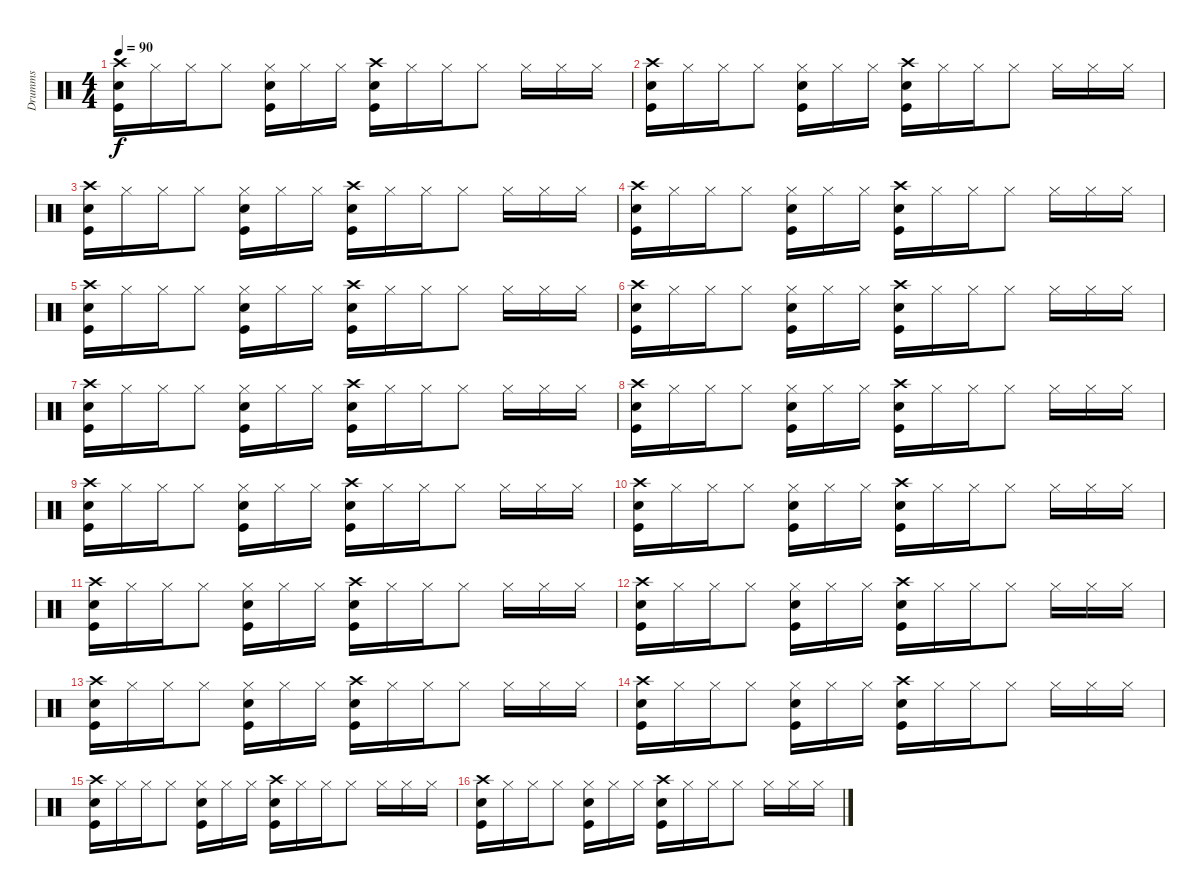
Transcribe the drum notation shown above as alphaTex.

\track ("Drumms" "Drumms") {instrument percussion}
\staff {score}
\articulation defaults
\ts (4 4)
\tempo 90
\clef neutral
\ks c
("Crash high (hit)" "Snare (hit) 2" "Kick (hit)").16{dy f} "Hi-Hat (closed)".16 "Hi-Hat (closed)".16 "Hi-Hat (closed)".8 ("Hi-Hat (closed)" "Snare (hit) 2" "Kick (hit)").16 "Hi-Hat (closed)".16 "Hi-Hat (closed)".16 ("Crash high (hit)" "Snare (hit) 2" "Kick (hit)").16 "Hi-Hat (closed)".16 "Hi-Hat (closed)".16 "Hi-Hat (closed)".8 "Hi-Hat (closed)".16 "Hi-Hat (closed)".16 "Hi-Hat (closed)".16 |
("Crash high (hit)" "Snare (hit) 2" "Kick (hit)").16 "Hi-Hat (closed)".16 "Hi-Hat (closed)".16 "Hi-Hat (closed)".8 ("Hi-Hat (closed)" "Snare (hit) 2" "Kick (hit)").16 "Hi-Hat (closed)".16 "Hi-Hat (closed)".16 ("Crash high (hit)" "Snare (hit) 2" "Kick (hit)").16 "Hi-Hat (closed)".16 "Hi-Hat (closed)".16 "Hi-Hat (closed)".8 "Hi-Hat (closed)".16 "Hi-Hat (closed)".16 "Hi-Hat (closed)".16 |
("Crash high (hit)" "Snare (hit) 2" "Kick (hit)").16 "Hi-Hat (closed)".16 "Hi-Hat (closed)".16 "Hi-Hat (closed)".8 ("Hi-Hat (closed)" "Snare (hit) 2" "Kick (hit)").16 "Hi-Hat (closed)".16 "Hi-Hat (closed)".16 ("Crash high (hit)" "Snare (hit) 2" "Kick (hit)").16 "Hi-Hat (closed)".16 "Hi-Hat (closed)".16 "Hi-Hat (closed)".8 "Hi-Hat (closed)".16 "Hi-Hat (closed)".16 "Hi-Hat (closed)".16 |
("Crash high (hit)" "Snare (hit) 2" "Kick (hit)").16 "Hi-Hat (closed)".16 "Hi-Hat (closed)".16 "Hi-Hat (closed)".8 ("Hi-Hat (closed)" "Snare (hit) 2" "Kick (hit)").16 "Hi-Hat (closed)".16 "Hi-Hat (closed)".16 ("Crash high (hit)" "Snare (hit) 2" "Kick (hit)").16 "Hi-Hat (closed)".16 "Hi-Hat (closed)".16 "Hi-Hat (closed)".8 "Hi-Hat (closed)".16 "Hi-Hat (closed)".16 "Hi-Hat (closed)".16 |
("Crash high (hit)" "Snare (hit) 2" "Kick (hit)").16 "Hi-Hat (closed)".16 "Hi-Hat (closed)".16 "Hi-Hat (closed)".8 ("Hi-Hat (closed)" "Snare (hit) 2" "Kick (hit)").16 "Hi-Hat (closed)".16 "Hi-Hat (closed)".16 ("Crash high (hit)" "Snare (hit) 2" "Kick (hit)").16 "Hi-Hat (closed)".16 "Hi-Hat (closed)".16 "Hi-Hat (closed)".8 "Hi-Hat (closed)".16 "Hi-Hat (closed)".16 "Hi-Hat (closed)".16 |
("Crash high (hit)" "Snare (hit) 2" "Kick (hit)").16 "Hi-Hat (closed)".16 "Hi-Hat (closed)".16 "Hi-Hat (closed)".8 ("Hi-Hat (closed)" "Snare (hit) 2" "Kick (hit)").16 "Hi-Hat (closed)".16 "Hi-Hat (closed)".16 ("Crash high (hit)" "Snare (hit) 2" "Kick (hit)").16 "Hi-Hat (closed)".16 "Hi-Hat (closed)".16 "Hi-Hat (closed)".8 "Hi-Hat (closed)".16 "Hi-Hat (closed)".16 "Hi-Hat (closed)".16 |
("Crash high (hit)" "Snare (hit) 2" "Kick (hit)").16 "Hi-Hat (closed)".16 "Hi-Hat (closed)".16 "Hi-Hat (closed)".8 ("Hi-Hat (closed)" "Snare (hit) 2" "Kick (hit)").16 "Hi-Hat (closed)".16 "Hi-Hat (closed)".16 ("Crash high (hit)" "Snare (hit) 2" "Kick (hit)").16 "Hi-Hat (closed)".16 "Hi-Hat (closed)".16 "Hi-Hat (closed)".8 "Hi-Hat (closed)".16 "Hi-Hat (closed)".16 "Hi-Hat (closed)".16 |
("Crash high (hit)" "Snare (hit) 2" "Kick (hit)").16 "Hi-Hat (closed)".16 "Hi-Hat (closed)".16 "Hi-Hat (closed)".8 ("Hi-Hat (closed)" "Snare (hit) 2" "Kick (hit)").16 "Hi-Hat (closed)".16 "Hi-Hat (closed)".16 ("Crash high (hit)" "Snare (hit) 2" "Kick (hit)").16 "Hi-Hat (closed)".16 "Hi-Hat (closed)".16 "Hi-Hat (closed)".8 "Hi-Hat (closed)".16 "Hi-Hat (closed)".16 "Hi-Hat (closed)".16 |
("Crash high (hit)" "Snare (hit) 2" "Kick (hit)").16 "Hi-Hat (closed)".16 "Hi-Hat (closed)".16 "Hi-Hat (closed)".8 ("Hi-Hat (closed)" "Snare (hit) 2" "Kick (hit)").16 "Hi-Hat (closed)".16 "Hi-Hat (closed)".16 ("Crash high (hit)" "Snare (hit) 2" "Kick (hit)").16 "Hi-Hat (closed)".16 "Hi-Hat (closed)".16 "Hi-Hat (closed)".8 "Hi-Hat (closed)".16 "Hi-Hat (closed)".16 "Hi-Hat (closed)".16 |
("Crash high (hit)" "Snare (hit) 2" "Kick (hit)").16 "Hi-Hat (closed)".16 "Hi-Hat (closed)".16 "Hi-Hat (closed)".8 ("Hi-Hat (closed)" "Snare (hit) 2" "Kick (hit)").16 "Hi-Hat (closed)".16 "Hi-Hat (closed)".16 ("Crash high (hit)" "Snare (hit) 2" "Kick (hit)").16 "Hi-Hat (closed)".16 "Hi-Hat (closed)".16 "Hi-Hat (closed)".8 "Hi-Hat (closed)".16 "Hi-Hat (closed)".16 "Hi-Hat (closed)".16 |
("Crash high (hit)" "Snare (hit) 2" "Kick (hit)").16 "Hi-Hat (closed)".16 "Hi-Hat (closed)".16 "Hi-Hat (closed)".8 ("Hi-Hat (closed)" "Snare (hit) 2" "Kick (hit)").16 "Hi-Hat (closed)".16 "Hi-Hat (closed)".16 ("Crash high (hit)" "Snare (hit) 2" "Kick (hit)").16 "Hi-Hat (closed)".16 "Hi-Hat (closed)".16 "Hi-Hat (closed)".8 "Hi-Hat (closed)".16 "Hi-Hat (closed)".16 "Hi-Hat (closed)".16 |
("Crash high (hit)" "Snare (hit) 2" "Kick (hit)").16 "Hi-Hat (closed)".16 "Hi-Hat (closed)".16 "Hi-Hat (closed)".8 ("Hi-Hat (closed)" "Snare (hit) 2" "Kick (hit)").16 "Hi-Hat (closed)".16 "Hi-Hat (closed)".16 ("Crash high (hit)" "Snare (hit) 2" "Kick (hit)").16 "Hi-Hat (closed)".16 "Hi-Hat (closed)".16 "Hi-Hat (closed)".8 "Hi-Hat (closed)".16 "Hi-Hat (closed)".16 "Hi-Hat (closed)".16 |
("Crash high (hit)" "Snare (hit) 2" "Kick (hit)").16 "Hi-Hat (closed)".16 "Hi-Hat (closed)".16 "Hi-Hat (closed)".8 ("Hi-Hat (closed)" "Snare (hit) 2" "Kick (hit)").16 "Hi-Hat (closed)".16 "Hi-Hat (closed)".16 ("Crash high (hit)" "Snare (hit) 2" "Kick (hit)").16 "Hi-Hat (closed)".16 "Hi-Hat (closed)".16 "Hi-Hat (closed)".8 "Hi-Hat (closed)".16 "Hi-Hat (closed)".16 "Hi-Hat (closed)".16 |
("Crash high (hit)" "Snare (hit) 2" "Kick (hit)").16 "Hi-Hat (closed)".16 "Hi-Hat (closed)".16 "Hi-Hat (closed)".8 ("Hi-Hat (closed)" "Snare (hit) 2" "Kick (hit)").16 "Hi-Hat (closed)".16 "Hi-Hat (closed)".16 ("Crash high (hit)" "Snare (hit) 2" "Kick (hit)").16 "Hi-Hat (closed)".16 "Hi-Hat (closed)".16 "Hi-Hat (closed)".8 "Hi-Hat (closed)".16 "Hi-Hat (closed)".16 "Hi-Hat (closed)".16 |
("Crash high (hit)" "Snare (hit) 2" "Kick (hit)").16 "Hi-Hat (closed)".16 "Hi-Hat (closed)".16 "Hi-Hat (closed)".8 ("Hi-Hat (closed)" "Snare (hit) 2" "Kick (hit)").16 "Hi-Hat (closed)".16 "Hi-Hat (closed)".16 ("Crash high (hit)" "Snare (hit) 2" "Kick (hit)").16 "Hi-Hat (closed)".16 "Hi-Hat (closed)".16 "Hi-Hat (closed)".8 "Hi-Hat (closed)".16 "Hi-Hat (closed)".16 "Hi-Hat (closed)".16 |
("Crash high (hit)" "Snare (hit) 2" "Kick (hit)").16 "Hi-Hat (closed)".16 "Hi-Hat (closed)".16 "Hi-Hat (closed)".8 ("Hi-Hat (closed)" "Snare (hit) 2" "Kick (hit)").16 "Hi-Hat (closed)".16 "Hi-Hat (closed)".16 ("Crash high (hit)" "Snare (hit) 2" "Kick (hit)").16 "Hi-Hat (closed)".16 "Hi-Hat (closed)".16 "Hi-Hat (closed)".8 "Hi-Hat (closed)".16 "Hi-Hat (closed)".16 "Hi-Hat (closed)".16
